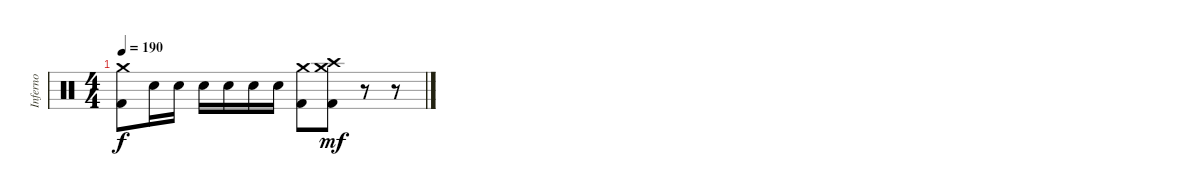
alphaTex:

\track ("Inferno" "Inferno") {instrument percussion}
\staff {score}
\articulation defaults
\ts (4 4)
\tempo 190
\clef neutral
\ks c
("Crash medium (hit)" "Kick (hit) 2").8{dy f} "Snare (hit) 2".16 "Snare (hit) 2".16 "Snare (hit) 2".16 "Snare (hit) 2".16 "Snare (hit) 2".16 "Snare (hit) 2".16 ("Crash medium (hit)" "Kick (hit) 2").8 ("Crash medium (hit)" "Crash high (hit)" "Kick (hit) 2").8{dy mf} r.8{volume 0} r.8
